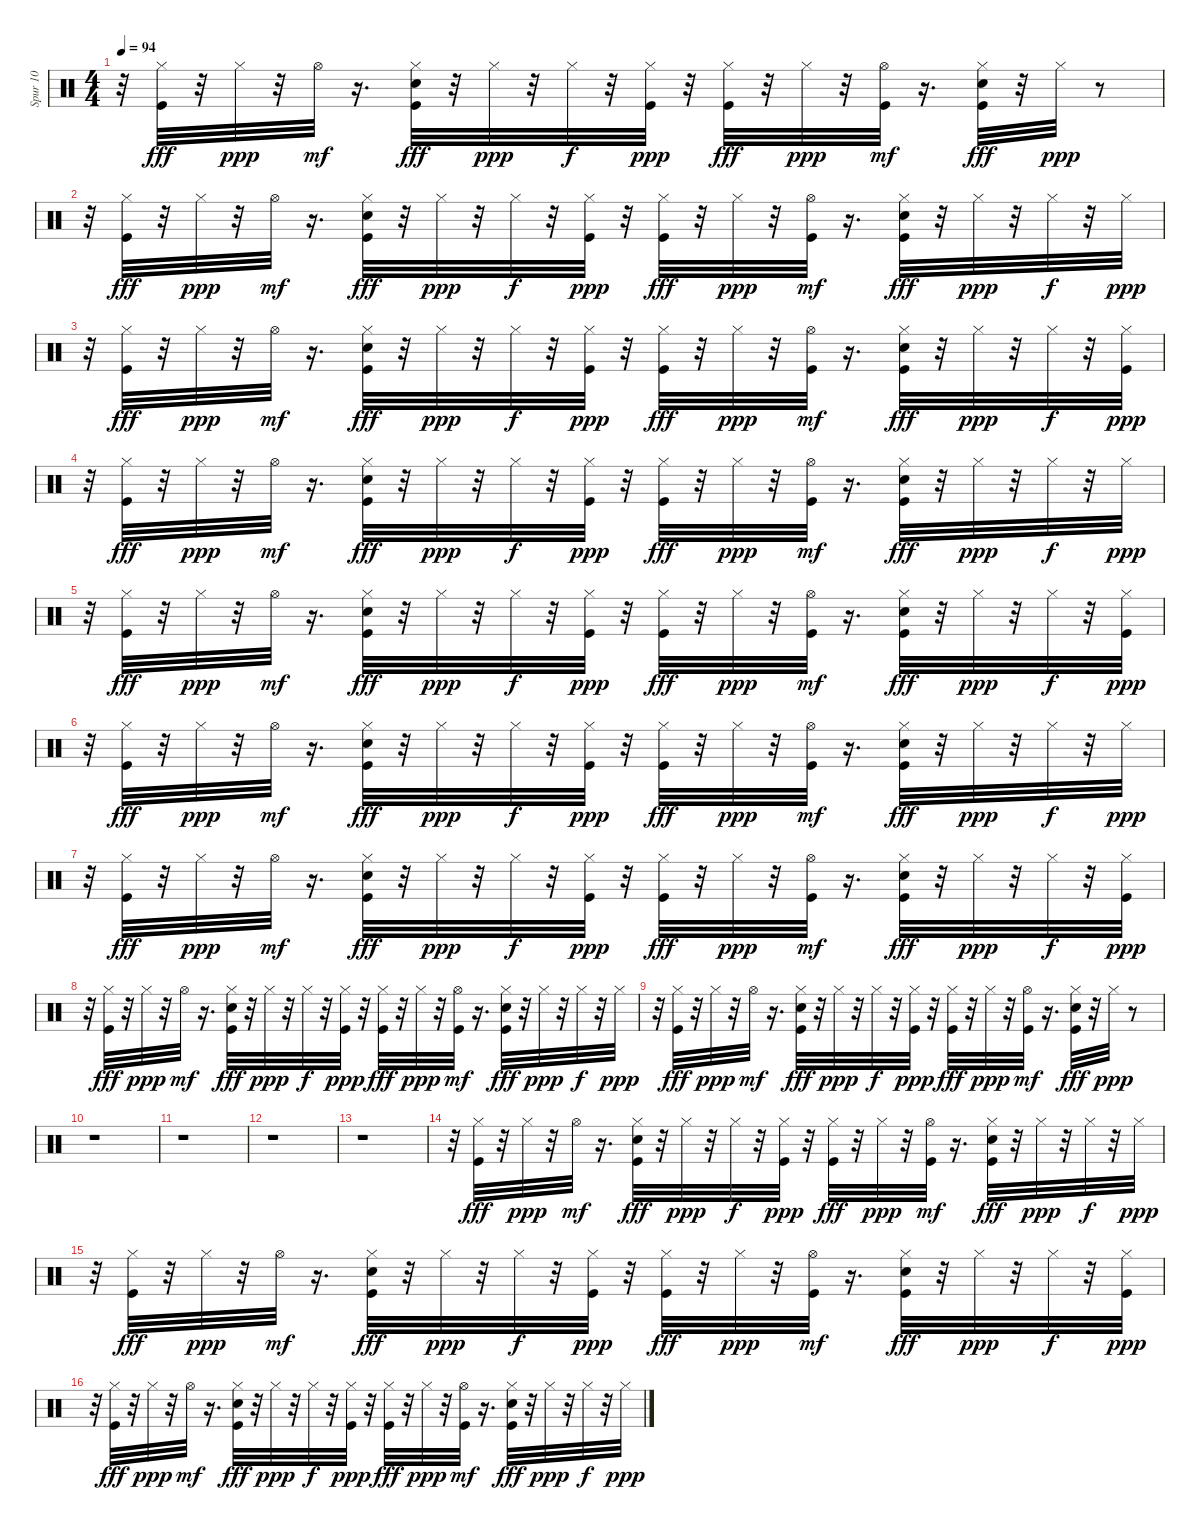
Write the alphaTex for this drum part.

\track ("Spur 10" "Spur 10") {instrument percussion}
\staff {score}
\articulation defaults
\ts (4 4)
\tempo 94
\clef neutral
\ks c
r.32{dy ppp} ("Kick (hit)" "Hi-Hat (closed)").32{dy fff} r.32 "Hi-Hat (closed)".32{dy ppp} r.32 "Hi-Hat (open)".32{dy mf} r.16{d} ("Kick (hit)" "Electric Snare (hit)" "Hi-Hat (closed)").32{dy fff} r.32 "Hi-Hat (closed)".32{dy ppp} r.32 "Hi-Hat (closed)".32{dy f} r.32 ("Kick (hit)" "Hi-Hat (closed)").32{dy ppp} r.32 ("Kick (hit)" "Hi-Hat (closed)").32{dy fff} r.32 "Hi-Hat (closed)".32{dy ppp} r.32 ("Kick (hit)" "Hi-Hat (open)").32{dy mf} r.16{d} ("Kick (hit)" "Electric Snare (hit)" "Hi-Hat (closed)").32{dy fff} r.32 "Hi-Hat (closed)".32{dy ppp} r.8 |
r.32 ("Kick (hit)" "Hi-Hat (closed)").32{dy fff} r.32 "Hi-Hat (closed)".32{dy ppp} r.32 "Hi-Hat (open)".32{dy mf} r.16{d} ("Kick (hit)" "Electric Snare (hit)" "Hi-Hat (closed)").32{dy fff} r.32 "Hi-Hat (closed)".32{dy ppp} r.32 "Hi-Hat (closed)".32{dy f} r.32 ("Kick (hit)" "Hi-Hat (closed)").32{dy ppp} r.32 ("Kick (hit)" "Hi-Hat (closed)").32{dy fff} r.32 "Hi-Hat (closed)".32{dy ppp} r.32 ("Kick (hit)" "Hi-Hat (open)").32{dy mf} r.16{d} ("Kick (hit)" "Electric Snare (hit)" "Hi-Hat (closed)").32{dy fff} r.32 "Hi-Hat (closed)".32{dy ppp} r.32 "Hi-Hat (closed)".32{dy f} r.32 "Hi-Hat (closed)".32{dy ppp} |
r.32 ("Kick (hit)" "Hi-Hat (closed)").32{dy fff} r.32 "Hi-Hat (closed)".32{dy ppp} r.32 "Hi-Hat (open)".32{dy mf} r.16{d} ("Kick (hit)" "Electric Snare (hit)" "Hi-Hat (closed)").32{dy fff} r.32 "Hi-Hat (closed)".32{dy ppp} r.32 "Hi-Hat (closed)".32{dy f} r.32 ("Kick (hit)" "Hi-Hat (closed)").32{dy ppp} r.32 ("Kick (hit)" "Hi-Hat (closed)").32{dy fff} r.32 "Hi-Hat (closed)".32{dy ppp} r.32 ("Kick (hit)" "Hi-Hat (open)").32{dy mf} r.16{d} ("Kick (hit)" "Electric Snare (hit)" "Hi-Hat (closed)").32{dy fff} r.32 "Hi-Hat (closed)".32{dy ppp} r.32 "Hi-Hat (closed)".32{dy f} r.32 ("Kick (hit)" "Hi-Hat (closed)").32{dy ppp} |
r.32 ("Kick (hit)" "Hi-Hat (closed)").32{dy fff} r.32 "Hi-Hat (closed)".32{dy ppp} r.32 "Hi-Hat (open)".32{dy mf} r.16{d} ("Kick (hit)" "Electric Snare (hit)" "Hi-Hat (closed)").32{dy fff} r.32 "Hi-Hat (closed)".32{dy ppp} r.32 "Hi-Hat (closed)".32{dy f} r.32 ("Kick (hit)" "Hi-Hat (closed)").32{dy ppp} r.32 ("Kick (hit)" "Hi-Hat (closed)").32{dy fff} r.32 "Hi-Hat (closed)".32{dy ppp} r.32 ("Kick (hit)" "Hi-Hat (open)").32{dy mf} r.16{d} ("Kick (hit)" "Electric Snare (hit)" "Hi-Hat (closed)").32{dy fff} r.32 "Hi-Hat (closed)".32{dy ppp} r.32 "Hi-Hat (closed)".32{dy f} r.32 "Hi-Hat (closed)".32{dy ppp} |
r.32 ("Kick (hit)" "Hi-Hat (closed)").32{dy fff} r.32 "Hi-Hat (closed)".32{dy ppp} r.32 "Hi-Hat (open)".32{dy mf} r.16{d} ("Kick (hit)" "Electric Snare (hit)" "Hi-Hat (closed)").32{dy fff} r.32 "Hi-Hat (closed)".32{dy ppp} r.32 "Hi-Hat (closed)".32{dy f} r.32 ("Kick (hit)" "Hi-Hat (closed)").32{dy ppp} r.32 ("Kick (hit)" "Hi-Hat (closed)").32{dy fff} r.32 "Hi-Hat (closed)".32{dy ppp} r.32 ("Kick (hit)" "Hi-Hat (open)").32{dy mf} r.16{d} ("Kick (hit)" "Electric Snare (hit)" "Hi-Hat (closed)").32{dy fff} r.32 "Hi-Hat (closed)".32{dy ppp} r.32 "Hi-Hat (closed)".32{dy f} r.32 ("Kick (hit)" "Hi-Hat (closed)").32{dy ppp} |
r.32 ("Kick (hit)" "Hi-Hat (closed)").32{dy fff} r.32 "Hi-Hat (closed)".32{dy ppp} r.32 "Hi-Hat (open)".32{dy mf} r.16{d} ("Kick (hit)" "Electric Snare (hit)" "Hi-Hat (closed)").32{dy fff} r.32 "Hi-Hat (closed)".32{dy ppp} r.32 "Hi-Hat (closed)".32{dy f} r.32 ("Kick (hit)" "Hi-Hat (closed)").32{dy ppp} r.32 ("Kick (hit)" "Hi-Hat (closed)").32{dy fff} r.32 "Hi-Hat (closed)".32{dy ppp} r.32 ("Kick (hit)" "Hi-Hat (open)").32{dy mf} r.16{d} ("Kick (hit)" "Electric Snare (hit)" "Hi-Hat (closed)").32{dy fff} r.32 "Hi-Hat (closed)".32{dy ppp} r.32 "Hi-Hat (closed)".32{dy f} r.32 "Hi-Hat (closed)".32{dy ppp} |
r.32 ("Kick (hit)" "Hi-Hat (closed)").32{dy fff} r.32 "Hi-Hat (closed)".32{dy ppp} r.32 "Hi-Hat (open)".32{dy mf} r.16{d} ("Kick (hit)" "Electric Snare (hit)" "Hi-Hat (closed)").32{dy fff} r.32 "Hi-Hat (closed)".32{dy ppp} r.32 "Hi-Hat (closed)".32{dy f} r.32 ("Kick (hit)" "Hi-Hat (closed)").32{dy ppp} r.32 ("Kick (hit)" "Hi-Hat (closed)").32{dy fff} r.32 "Hi-Hat (closed)".32{dy ppp} r.32 ("Kick (hit)" "Hi-Hat (open)").32{dy mf} r.16{d} ("Kick (hit)" "Electric Snare (hit)" "Hi-Hat (closed)").32{dy fff} r.32 "Hi-Hat (closed)".32{dy ppp} r.32 "Hi-Hat (closed)".32{dy f} r.32 ("Kick (hit)" "Hi-Hat (closed)").32{dy ppp} |
r.32 ("Kick (hit)" "Hi-Hat (closed)").32{dy fff} r.32 "Hi-Hat (closed)".32{dy ppp} r.32 "Hi-Hat (open)".32{dy mf} r.16{d} ("Kick (hit)" "Electric Snare (hit)" "Hi-Hat (closed)").32{dy fff} r.32 "Hi-Hat (closed)".32{dy ppp} r.32 "Hi-Hat (closed)".32{dy f} r.32 ("Kick (hit)" "Hi-Hat (closed)").32{dy ppp} r.32 ("Kick (hit)" "Hi-Hat (closed)").32{dy fff} r.32 "Hi-Hat (closed)".32{dy ppp} r.32 ("Kick (hit)" "Hi-Hat (open)").32{dy mf} r.16{d} ("Kick (hit)" "Electric Snare (hit)" "Hi-Hat (closed)").32{dy fff} r.32 "Hi-Hat (closed)".32{dy ppp} r.32 "Hi-Hat (closed)".32{dy f} r.32 "Hi-Hat (closed)".32{dy ppp} |
r.32 ("Kick (hit)" "Hi-Hat (closed)").32{dy fff} r.32 "Hi-Hat (closed)".32{dy ppp} r.32 "Hi-Hat (open)".32{dy mf} r.16{d} ("Kick (hit)" "Electric Snare (hit)" "Hi-Hat (closed)").32{dy fff} r.32 "Hi-Hat (closed)".32{dy ppp} r.32 "Hi-Hat (closed)".32{dy f} r.32 ("Kick (hit)" "Hi-Hat (closed)").32{dy ppp} r.32 ("Kick (hit)" "Hi-Hat (closed)").32{dy fff} r.32 "Hi-Hat (closed)".32{dy ppp} r.32 ("Kick (hit)" "Hi-Hat (open)").32{dy mf} r.16{d} ("Kick (hit)" "Electric Snare (hit)" "Hi-Hat (closed)").32{dy fff} r.32 "Hi-Hat (closed)".32{dy ppp} r.8 |
r.1 |
r.1 |
r.1 |
r.1 |
r.32 ("Kick (hit)" "Hi-Hat (closed)").32{dy fff} r.32 "Hi-Hat (closed)".32{dy ppp} r.32 "Hi-Hat (open)".32{dy mf} r.16{d} ("Kick (hit)" "Electric Snare (hit)" "Hi-Hat (closed)").32{dy fff} r.32 "Hi-Hat (closed)".32{dy ppp} r.32 "Hi-Hat (closed)".32{dy f} r.32 ("Kick (hit)" "Hi-Hat (closed)").32{dy ppp} r.32 ("Kick (hit)" "Hi-Hat (closed)").32{dy fff} r.32 "Hi-Hat (closed)".32{dy ppp} r.32 ("Kick (hit)" "Hi-Hat (open)").32{dy mf} r.16{d} ("Kick (hit)" "Electric Snare (hit)" "Hi-Hat (closed)").32{dy fff} r.32 "Hi-Hat (closed)".32{dy ppp} r.32 "Hi-Hat (closed)".32{dy f} r.32 "Hi-Hat (closed)".32{dy ppp} |
r.32 ("Kick (hit)" "Hi-Hat (closed)").32{dy fff} r.32 "Hi-Hat (closed)".32{dy ppp} r.32 "Hi-Hat (open)".32{dy mf} r.16{d} ("Kick (hit)" "Electric Snare (hit)" "Hi-Hat (closed)").32{dy fff} r.32 "Hi-Hat (closed)".32{dy ppp} r.32 "Hi-Hat (closed)".32{dy f} r.32 ("Kick (hit)" "Hi-Hat (closed)").32{dy ppp} r.32 ("Kick (hit)" "Hi-Hat (closed)").32{dy fff} r.32 "Hi-Hat (closed)".32{dy ppp} r.32 ("Kick (hit)" "Hi-Hat (open)").32{dy mf} r.16{d} ("Kick (hit)" "Electric Snare (hit)" "Hi-Hat (closed)").32{dy fff} r.32 "Hi-Hat (closed)".32{dy ppp} r.32 "Hi-Hat (closed)".32{dy f} r.32 ("Kick (hit)" "Hi-Hat (closed)").32{dy ppp} |
r.32 ("Kick (hit)" "Hi-Hat (closed)").32{dy fff} r.32 "Hi-Hat (closed)".32{dy ppp} r.32 "Hi-Hat (open)".32{dy mf} r.16{d} ("Kick (hit)" "Electric Snare (hit)" "Hi-Hat (closed)").32{dy fff} r.32 "Hi-Hat (closed)".32{dy ppp} r.32 "Hi-Hat (closed)".32{dy f} r.32 ("Kick (hit)" "Hi-Hat (closed)").32{dy ppp} r.32 ("Kick (hit)" "Hi-Hat (closed)").32{dy fff} r.32 "Hi-Hat (closed)".32{dy ppp} r.32 ("Kick (hit)" "Hi-Hat (open)").32{dy mf} r.16{d} ("Kick (hit)" "Electric Snare (hit)" "Hi-Hat (closed)").32{dy fff} r.32 "Hi-Hat (closed)".32{dy ppp} r.32 "Hi-Hat (closed)".32{dy f} r.32 "Hi-Hat (closed)".32{dy ppp}
